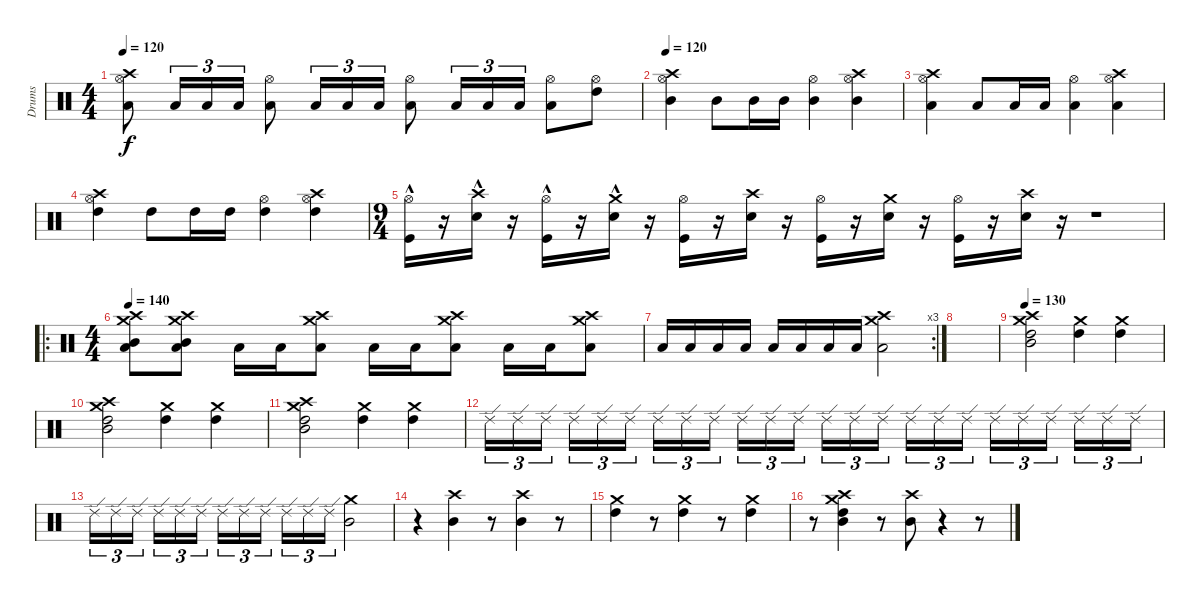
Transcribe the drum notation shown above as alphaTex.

\track ("Drums" "Drums") {instrument percussion}
\staff {score}
\articulation defaults
\ts (4 4)
\tempo 120
\clef neutral
\ks c
("Hi-Hat (open)" "Low Tom (hit)" "Crash high (hit)").8{dy f} "Low Tom (hit)".16{tu (3 2)} "Low Tom (hit)".16{tu (3 2)} "Low Tom (hit)".16{tu (3 2)} ("Hi-Hat (open)" "Low Tom (hit)").8 "Low Tom (hit)".16{tu (3 2)} "Low Tom (hit)".16{tu (3 2)} "Low Tom (hit)".16{tu (3 2)} ("Hi-Hat (open)" "Low Tom (hit)").8 "Low Tom (hit)".16{tu (3 2)} "Low Tom (hit)".16{tu (3 2)} "Low Tom (hit)".16{tu (3 2)} ("Hi-Hat (open)" "Low Tom (hit)").8 ("Hi-Hat (open)" "High Tom (hit)").8 |
\tempo 120
("Hi-Hat (open)" "Mid Tom (hit)" "Crash high (hit)").4 "Mid Tom (hit)".8 "Mid Tom (hit)".16 "Mid Tom (hit)".16 ("Hi-Hat (open)" "Mid Tom (hit)").4 ("Hi-Hat (open)" "Mid Tom (hit)" "Crash high (hit)").4 |
("Hi-Hat (open)" "Low Tom (hit)" "Crash high (hit)").4 "Low Tom (hit)".8 "Low Tom (hit)".16 "Low Tom (hit)".16 ("Hi-Hat (open)" "Low Tom (hit)").4 ("Hi-Hat (open)" "Low Tom (hit)" "Crash high (hit)").4 |
("Hi-Hat (open)" "High Tom (hit)" "Crash high (hit)").4 "High Tom (hit)".8 "High Tom (hit)".16 "High Tom (hit)".16 ("Hi-Hat (open)" "High Tom (hit)").4 ("Hi-Hat (open)" "High Tom (hit)" "Crash high (hit)").4 |
\ts (9 4)
("Hi-Hat (open)" "Kick (hit)"{hac}).16 r.16 ("Crash high (hit)" "Snare (hit) 2"{hac}).16 r.16 ("Hi-Hat (open)" "Kick (hit)"{hac}).16 r.16 ("Crash medium (hit)" "Snare (hit) 2"{hac}).16 r.16 ("Hi-Hat (open)" "Kick (hit)").16 r.16 ("Crash high (hit)" "Snare (hit) 2").16 r.16 ("Hi-Hat (open)" "Kick (hit)").16 r.16 ("Crash medium (hit)" "Snare (hit) 2").16 r.16 ("Hi-Hat (open)" "Kick (hit)").16 r.16 ("Crash high (hit)" "Snare (hit) 2").16 r.16 r.1 |
\ro
\ts (4 4)
\tempo 140
("Low Tom (hit)" "Mid Tom (hit)" "Crash high (hit)" "Crash medium (hit)").8 ("Low Tom (hit)" "Mid Tom (hit)" "Crash high (hit)" "Crash medium (hit)").8 "Low Tom (hit)".16 "Low Tom (hit)".16 ("Crash high (hit)" "Crash medium (hit)" "Low Tom (hit)").8 "Low Tom (hit)".16 "Low Tom (hit)".16 ("Crash high (hit)" "Crash medium (hit)" "Low Tom (hit)").8 "Low Tom (hit)".16 "Low Tom (hit)".16 ("Crash high (hit)" "Crash medium (hit)" "Low Tom (hit)").8 |
\rc 3 "Low Tom (hit)".16 "Low Tom (hit)".16 "Low Tom (hit)".16 "Low Tom (hit)".16 "Low Tom (hit)".16 "Low Tom (hit)".16 "Low Tom (hit)".16 "Low Tom (hit)".16
("Crash high (hit)" "Crash medium (hit)" "Low Tom (hit)").2 |
|
\tempo 130
("Crash medium (hit)" "High Tom (hit)" "Mid Tom (hit)" "Crash high (hit)").2 ("Crash medium (hit)" "High Tom (hit)").4 ("Crash medium (hit)" "High Tom (hit)").4 |
("Crash medium (hit)" "High Tom (hit)" "Mid Tom (hit)" "Crash high (hit)").2 ("Crash medium (hit)" "High Tom (hit)").4 ("Crash medium (hit)" "High Tom (hit)").4 |
("Crash medium (hit)" "High Tom (hit)" "Mid Tom (hit)" "Crash high (hit)").2 ("Crash medium (hit)" "High Tom (hit)").4 ("Crash medium (hit)" "High Tom (hit)").4 |
"Ride (edge) 2".16{tu (3 2)} "Ride (edge) 2".16{tu (3 2)} "Ride (edge) 2".16{tu (3 2)} "Ride (edge) 2".16{tu (3 2)} "Ride (edge) 2".16{tu (3 2)} "Ride (edge) 2".16{tu (3 2)} "Ride (edge) 2".16{tu (3 2)} "Ride (edge) 2".16{tu (3 2)} "Ride (edge) 2".16{tu (3 2)} "Ride (edge) 2".16{tu (3 2)} "Ride (edge) 2".16{tu (3 2)} "Ride (edge) 2".16{tu (3 2)} "Ride (edge) 2".16{tu (3 2)} "Ride (edge) 2".16{tu (3 2)} "Ride (edge) 2".16{tu (3 2)} "Ride (edge) 2".16{tu (3 2)} "Ride (edge) 2".16{tu (3 2)} "Ride (edge) 2".16{tu (3 2)} "Ride (edge) 2".16{tu (3 2)} "Ride (edge) 2".16{tu (3 2)} "Ride (edge) 2".16{tu (3 2)} "Ride (edge) 2".16{tu (3 2)} "Ride (edge) 2".16{tu (3 2)} "Ride (edge) 2".16{tu (3 2)} |
"Ride (edge) 2".16{tu (3 2)} "Ride (edge) 2".16{tu (3 2)} "Ride (edge) 2".16{tu (3 2)} "Ride (edge) 2".16{tu (3 2)} "Ride (edge) 2".16{tu (3 2)} "Ride (edge) 2".16{tu (3 2)} "Ride (edge) 2".16{tu (3 2)} "Ride (edge) 2".16{tu (3 2)} "Ride (edge) 2".16{tu (3 2)} "Ride (edge) 2".16{tu (3 2)} "Ride (edge) 2".16{tu (3 2)} "Ride (edge) 2".16{tu (3 2)} ("Crash medium (hit)" "Mid Tom (hit)").2 |
r.4 ("Crash high (hit)" "Mid Tom (hit)").4 r.8 ("Crash high (hit)" "Mid Tom (hit)").4 r.8 |
("Crash medium (hit)" "High Tom (hit)").4 r.8 ("Crash medium (hit)" "High Tom (hit)").4 r.8 ("Crash medium (hit)" "High Tom (hit)").4 |
r.8 ("Crash medium (hit)" "Mid Tom (hit)" "Crash high (hit)" "High Tom (hit)").4 r.8 ("Crash high (hit)" "Mid Tom (hit)").8 r.4 r.8
